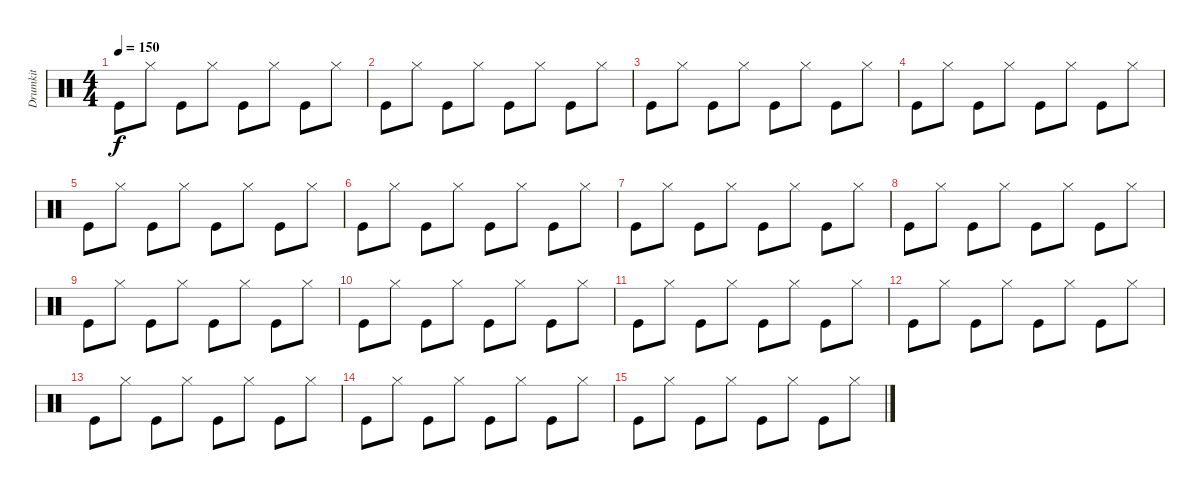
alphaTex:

\track ("Drumkit" "Drumkit") {instrument percussion}
\staff {score}
\articulation defaults
\ts (4 4)
\tempo 150
\clef neutral
\ks c "Kick (hit)".8{dy f} "Hi-Hat (closed)".8 "Kick (hit)".8 "Hi-Hat (closed)".8 "Kick (hit)".8 "Hi-Hat (closed)".8 "Kick (hit)".8 "Hi-Hat (closed)".8
|
"Kick (hit)".8 "Hi-Hat (closed)".8 "Kick (hit)".8 "Hi-Hat (closed)".8 "Kick (hit)".8 "Hi-Hat (closed)".8 "Kick (hit)".8 "Hi-Hat (closed)".8 |
"Kick (hit)".8 "Hi-Hat (closed)".8 "Kick (hit)".8 "Hi-Hat (closed)".8 "Kick (hit)".8 "Hi-Hat (closed)".8 "Kick (hit)".8 "Hi-Hat (closed)".8 |
"Kick (hit)".8 "Hi-Hat (closed)".8 "Kick (hit)".8 "Hi-Hat (closed)".8 "Kick (hit)".8 "Hi-Hat (closed)".8 "Kick (hit)".8 "Hi-Hat (closed)".8 |
"Kick (hit)".8 "Hi-Hat (closed)".8 "Kick (hit)".8 "Hi-Hat (closed)".8 "Kick (hit)".8 "Hi-Hat (closed)".8 "Kick (hit)".8 "Hi-Hat (closed)".8 |
"Kick (hit)".8 "Hi-Hat (closed)".8 "Kick (hit)".8 "Hi-Hat (closed)".8 "Kick (hit)".8 "Hi-Hat (closed)".8 "Kick (hit)".8 "Hi-Hat (closed)".8 |
"Kick (hit)".8 "Hi-Hat (closed)".8 "Kick (hit)".8 "Hi-Hat (closed)".8 "Kick (hit)".8 "Hi-Hat (closed)".8 "Kick (hit)".8 "Hi-Hat (closed)".8 |
"Kick (hit)".8 "Hi-Hat (closed)".8 "Kick (hit)".8 "Hi-Hat (closed)".8 "Kick (hit)".8 "Hi-Hat (closed)".8 "Kick (hit)".8 "Hi-Hat (closed)".8 |
"Kick (hit)".8 "Hi-Hat (closed)".8 "Kick (hit)".8 "Hi-Hat (closed)".8 "Kick (hit)".8 "Hi-Hat (closed)".8 "Kick (hit)".8 "Hi-Hat (closed)".8 |
"Kick (hit)".8 "Hi-Hat (closed)".8 "Kick (hit)".8 "Hi-Hat (closed)".8 "Kick (hit)".8 "Hi-Hat (closed)".8 "Kick (hit)".8 "Hi-Hat (closed)".8 |
"Kick (hit)".8 "Hi-Hat (closed)".8 "Kick (hit)".8 "Hi-Hat (closed)".8 "Kick (hit)".8 "Hi-Hat (closed)".8 "Kick (hit)".8 "Hi-Hat (closed)".8 |
"Kick (hit)".8 "Hi-Hat (closed)".8 "Kick (hit)".8 "Hi-Hat (closed)".8 "Kick (hit)".8 "Hi-Hat (closed)".8 "Kick (hit)".8 "Hi-Hat (closed)".8 |
"Kick (hit)".8 "Hi-Hat (closed)".8 "Kick (hit)".8 "Hi-Hat (closed)".8 "Kick (hit)".8 "Hi-Hat (closed)".8 "Kick (hit)".8 "Hi-Hat (closed)".8 |
"Kick (hit)".8 "Hi-Hat (closed)".8 "Kick (hit)".8 "Hi-Hat (closed)".8 "Kick (hit)".8 "Hi-Hat (closed)".8 "Kick (hit)".8 "Hi-Hat (closed)".8 |
"Kick (hit)".8 "Hi-Hat (closed)".8 "Kick (hit)".8 "Hi-Hat (closed)".8 "Kick (hit)".8 "Hi-Hat (closed)".8 "Kick (hit)".8 "Hi-Hat (closed)".8
